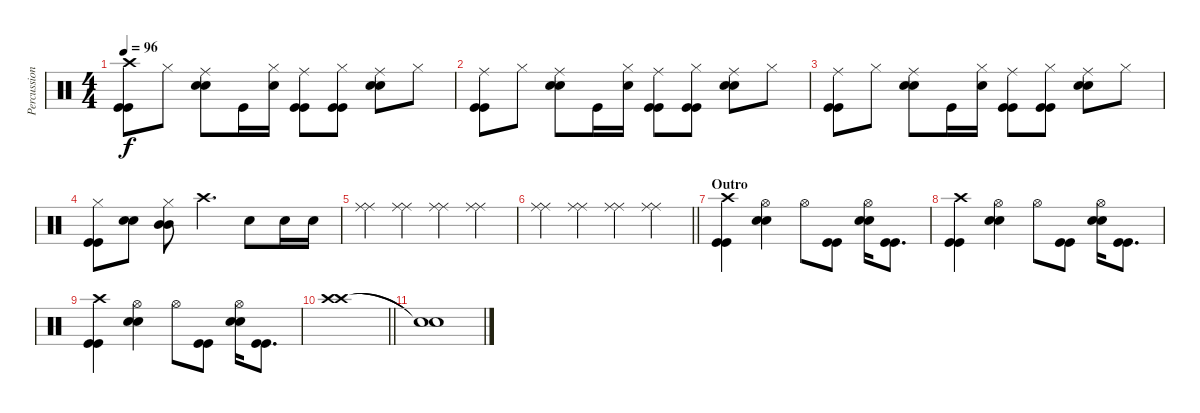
\track ("Percussioni" "Percussion") {instrument percussion}
\staff {score}
\articulation defaults
\ts (4 4)
\tempo 96
\clef neutral
\ks c
("Crash high (hit)" "Kick (hit)" "Kick (hit)").8{dy f} "Hi-Hat (closed)".8 ("Ride (middle)" "Snare (hit) 2" "Snare (hit) 2").8 "Kick (hit)".16 ("Hi-Hat (closed)" "Snare (hit) 2").16 ("Ride (middle)" "Kick (hit)" "Kick (hit)").8 ("Hi-Hat (closed)" "Kick (hit)" "Kick (hit)").8 ("Ride (middle)" "Snare (hit) 2" "Snare (hit) 2").8 "Hi-Hat (closed)".8 |
("Ride (middle)" "Kick (hit)" "Kick (hit)").8 "Hi-Hat (closed)".8 ("Ride (middle)" "Snare (hit) 2" "Snare (hit) 2").8 "Kick (hit)".16 ("Hi-Hat (closed)" "Snare (hit) 2").16 ("Ride (middle)" "Kick (hit)" "Kick (hit)").8 ("Hi-Hat (closed)" "Kick (hit)" "Kick (hit)").8 ("Ride (middle)" "Snare (hit) 2" "Snare (hit) 2").8 "Hi-Hat (closed)".8 |
("Ride (middle)" "Kick (hit)" "Kick (hit)").8 "Hi-Hat (closed)".8 ("Ride (middle)" "Snare (hit) 2" "Snare (hit) 2").8 "Kick (hit)".16 ("Hi-Hat (closed)" "Snare (hit) 2").16 ("Ride (middle)" "Kick (hit)" "Kick (hit)").8 ("Hi-Hat (closed)" "Kick (hit)" "Kick (hit)").8 ("Ride (middle)" "Snare (hit) 2" "Snare (hit) 2").8 "Hi-Hat (closed)".8 |
("Hi-Hat (closed)" "Kick (hit)" "Kick (hit)").8 ("Snare (hit) 2" "Snare (hit) 2").8 ("Hi-Hat (closed)" "Mid Tom (hit)" "Mid Tom (hit)").8 "Crash high (hit)".4{d} "Snare (hit) 2".8 "Snare (hit) 2".16 "Snare (hit) 2".16 |
("Ride (middle)" "Ride (middle)").4 ("Ride (middle)" "Ride (middle)").4 ("Ride (middle)" "Ride (middle)").4 ("Ride (middle)" "Ride (middle)").4 |
\barLineRight lightlight
("Ride (middle)" "Ride (middle)").4 ("Ride (middle)" "Ride (middle)").4 ("Ride (middle)" "Ride (middle)").4 ("Ride (middle)" "Ride (middle)").4 |
\section ("" "Outro")
("Crash high (hit)" "Kick (hit)" "Kick (hit)").4 ("Hi-Hat (open)" "Snare (hit) 2" "Snare (hit) 2").4 "Hi-Hat (open)".8 ("Kick (hit)" "Kick (hit)").8 ("Hi-Hat (open)" "Snare (hit) 2" "Snare (hit) 2").16 ("Kick (hit)" "Kick (hit)").8{d} |
("Crash high (hit)" "Kick (hit)" "Kick (hit)").4 ("Hi-Hat (open)" "Snare (hit) 2" "Snare (hit) 2").4 "Hi-Hat (open)".8 ("Kick (hit)" "Kick (hit)").8 ("Hi-Hat (open)" "Snare (hit) 2" "Snare (hit) 2").16 ("Kick (hit)" "Kick (hit)").8{d} |
("Crash high (hit)" "Kick (hit)" "Kick (hit)").4 ("Hi-Hat (open)" "Snare (hit) 2" "Snare (hit) 2").4 "Hi-Hat (open)".8 ("Kick (hit)" "Kick (hit)").8 ("Hi-Hat (open)" "Snare (hit) 2" "Snare (hit) 2").16 ("Kick (hit)" "Kick (hit)").8{d} |
\barLineRight lightlight
("Crash high (hit)" "Crash high (hit)").1 |
("Snare (hit)"{t} "Snare (hit)"{t}).1
